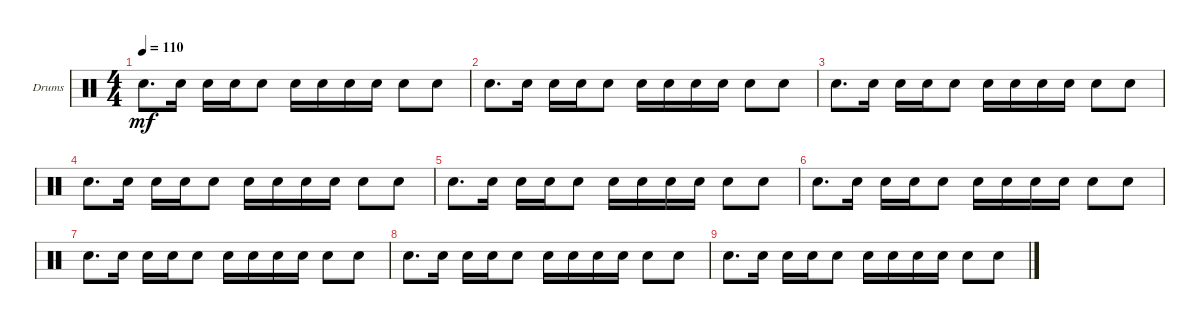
\defaultSystemsLayout 4
\bracketExtendMode groupsimilarinstruments
\firstSystemTrackNameOrientation horizontal
\otherSystemsTrackNameOrientation horizontal
\track ("Drumkit" "Drums") {instrument percussion}
\staff {score}
\articulation defaults
\ts (4 4)
\tempo 110
\clef neutral
\ks c "Snare (hit) 2".8{d dy mf} "Snare (hit) 2".16 "Snare (hit) 2".16 "Snare (hit) 2".16 "Snare (hit) 2".8 "Snare (hit) 2".16 "Snare (hit) 2".16 "Snare (hit) 2".16 "Snare (hit) 2".16 "Snare (hit) 2".8 "Snare (hit) 2".8
|
"Snare (hit) 2".8{d} "Snare (hit) 2".16 "Snare (hit) 2".16 "Snare (hit) 2".16 "Snare (hit) 2".8 "Snare (hit) 2".16 "Snare (hit) 2".16 "Snare (hit) 2".16 "Snare (hit) 2".16 "Snare (hit) 2".8 "Snare (hit) 2".8 |
"Snare (hit) 2".8{d} "Snare (hit) 2".16 "Snare (hit) 2".16 "Snare (hit) 2".16 "Snare (hit) 2".8 "Snare (hit) 2".16 "Snare (hit) 2".16 "Snare (hit) 2".16 "Snare (hit) 2".16 "Snare (hit) 2".8 "Snare (hit) 2".8 |
"Snare (hit) 2".8{d} "Snare (hit) 2".16 "Snare (hit) 2".16 "Snare (hit) 2".16 "Snare (hit) 2".8 "Snare (hit) 2".16 "Snare (hit) 2".16 "Snare (hit) 2".16 "Snare (hit) 2".16 "Snare (hit) 2".8 "Snare (hit) 2".8 |
"Snare (hit) 2".8{d} "Snare (hit) 2".16 "Snare (hit) 2".16 "Snare (hit) 2".16 "Snare (hit) 2".8 "Snare (hit) 2".16 "Snare (hit) 2".16 "Snare (hit) 2".16 "Snare (hit) 2".16 "Snare (hit) 2".8 "Snare (hit) 2".8 |
"Snare (hit) 2".8{d} "Snare (hit) 2".16 "Snare (hit) 2".16 "Snare (hit) 2".16 "Snare (hit) 2".8 "Snare (hit) 2".16 "Snare (hit) 2".16 "Snare (hit) 2".16 "Snare (hit) 2".16 "Snare (hit) 2".8 "Snare (hit) 2".8 |
"Snare (hit) 2".8{d} "Snare (hit) 2".16 "Snare (hit) 2".16 "Snare (hit) 2".16 "Snare (hit) 2".8 "Snare (hit) 2".16 "Snare (hit) 2".16 "Snare (hit) 2".16 "Snare (hit) 2".16 "Snare (hit) 2".8 "Snare (hit) 2".8 |
"Snare (hit) 2".8{d} "Snare (hit) 2".16 "Snare (hit) 2".16 "Snare (hit) 2".16 "Snare (hit) 2".8 "Snare (hit) 2".16 "Snare (hit) 2".16 "Snare (hit) 2".16 "Snare (hit) 2".16 "Snare (hit) 2".8 "Snare (hit) 2".8 |
"Snare (hit) 2".8{d} "Snare (hit) 2".16 "Snare (hit) 2".16 "Snare (hit) 2".16 "Snare (hit) 2".8 "Snare (hit) 2".16 "Snare (hit) 2".16 "Snare (hit) 2".16 "Snare (hit) 2".16 "Snare (hit) 2".8 "Snare (hit) 2".8 |
|
\scale
0.333333
